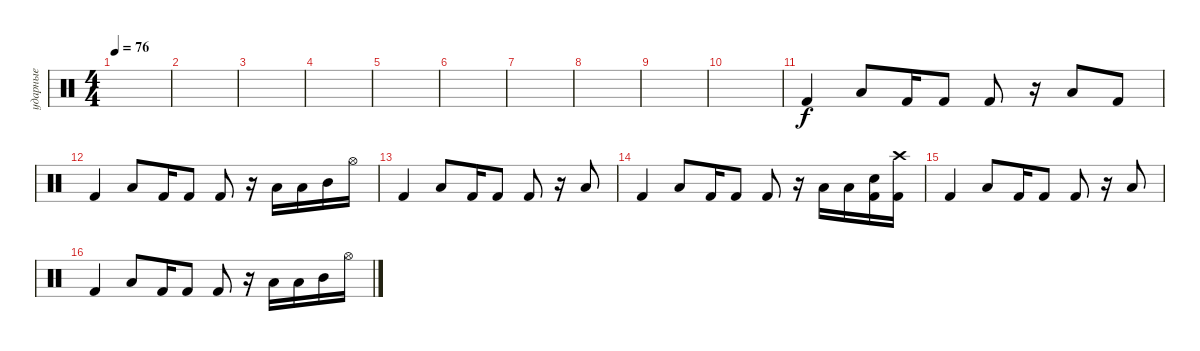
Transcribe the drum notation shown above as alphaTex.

\track ("ударные" "ударные") {instrument percussion}
\staff {score}
\articulation defaults
\ts (4 4)
\tempo 76
\clef neutral
\ks c
|
|
|
|
|
|
|
|
|
|
"Kick (hit) 2".4{dy f} "Low Tom (hit)".8 "Kick (hit) 2".16 "Kick (hit) 2".8 "Kick (hit) 2".8 r.16 "Low Tom (hit)".8 "Kick (hit) 2".8 |
"Kick (hit) 2".4 "Low Tom (hit)".8 "Kick (hit) 2".16 "Kick (hit) 2".8 "Kick (hit) 2".8 r.16 "Low Tom (hit)".16 "Low Tom (hit)".16 "Mid Tom (hit)".16 "Hi-Hat (open)".16 |
"Kick (hit) 2".4 "Low Tom (hit)".8 "Kick (hit) 2".16 "Kick (hit) 2".8 "Kick (hit) 2".8 r.16 "Low Tom (hit)".8 |
"Kick (hit) 2".4 "Low Tom (hit)".8 "Kick (hit) 2".16 "Kick (hit) 2".8 "Kick (hit) 2".8 r.16 "Low Tom (hit)".16 "Low Tom (hit)".16 ("Snare (hit) 2" "Kick (hit) 2").16 ("Crash high (hit)" "Kick (hit) 2").16 |
"Kick (hit) 2".4 "Low Tom (hit)".8 "Kick (hit) 2".16 "Kick (hit) 2".8 "Kick (hit) 2".8 r.16 "Low Tom (hit)".8 |
"Kick (hit) 2".4 "Low Tom (hit)".8 "Kick (hit) 2".16 "Kick (hit) 2".8 "Kick (hit) 2".8 r.16 "Low Tom (hit)".16 "Low Tom (hit)".16 "Mid Tom (hit)".16 "Hi-Hat (open)".16
